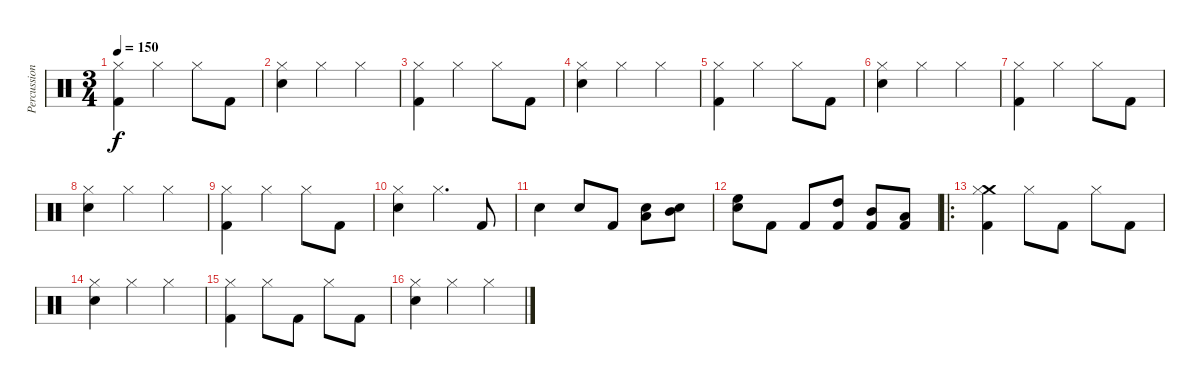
\track ("Percussion" "Percussion") {instrument percussion}
\staff {score}
\articulation defaults
\ts (3 4)
\tempo 150
\clef neutral
\ks c
("Hi-Hat (closed)" "Kick (hit) 2").4{dy f} "Hi-Hat (closed)".4 "Hi-Hat (closed)".8 "Kick (hit) 2".8 |
("Hi-Hat (closed)" "Snare (hit) 2").4 "Hi-Hat (closed)".4 "Hi-Hat (closed)".4 |
("Hi-Hat (closed)" "Kick (hit) 2").4 "Hi-Hat (closed)".4 "Hi-Hat (closed)".8 "Kick (hit) 2".8 |
("Hi-Hat (closed)" "Snare (hit) 2").4 "Hi-Hat (closed)".4 "Hi-Hat (closed)".4 |
("Hi-Hat (closed)" "Kick (hit) 2").4 "Hi-Hat (closed)".4 "Hi-Hat (closed)".8 "Kick (hit) 2".8 |
("Hi-Hat (closed)" "Snare (hit) 2").4 "Hi-Hat (closed)".4 "Hi-Hat (closed)".4 |
("Hi-Hat (closed)" "Kick (hit) 2").4 "Hi-Hat (closed)".4 "Hi-Hat (closed)".8 "Kick (hit) 2".8 |
("Hi-Hat (closed)" "Snare (hit) 2").4 "Hi-Hat (closed)".4 "Hi-Hat (closed)".4 |
("Hi-Hat (closed)" "Kick (hit) 2").4 "Hi-Hat (closed)".4 "Hi-Hat (closed)".8 "Kick (hit) 2".8 |
("Hi-Hat (closed)" "Snare (hit) 2").4 "Hi-Hat (closed)".4{d} "Kick (hit) 2".8 |
"Snare (hit) 2".4 "Snare (hit) 2".8 "Kick (hit) 2".8 ("Low Tom (hit)" "Snare (hit) 2").8 ("Mid Tom (hit)" "Snare (hit) 2").8 |
("High Floor Tom (hit)" "Snare (hit) 2").8 "Kick (hit) 2".8 "Kick (hit) 2".8 ("High Tom (hit)" "Kick (hit) 2").8 ("Mid Tom (hit)" "Kick (hit) 2").8 ("Low Tom (hit)" "Kick (hit) 2").8 |
\ro
("Crash medium (hit)" "Hi-Hat (closed)" "Kick (hit) 2").4 "Hi-Hat (closed)".8 "Kick (hit) 2".8 "Hi-Hat (closed)".8 "Kick (hit) 2".8 |
("Hi-Hat (closed)" "Snare (hit) 2").4 "Hi-Hat (closed)".4 "Hi-Hat (closed)".4 |
("Hi-Hat (closed)" "Kick (hit) 2").4 "Hi-Hat (closed)".8 "Kick (hit) 2".8 "Hi-Hat (closed)".8 "Kick (hit) 2".8 |
("Hi-Hat (closed)" "Snare (hit) 2").4 "Hi-Hat (closed)".4 "Hi-Hat (closed)".4
